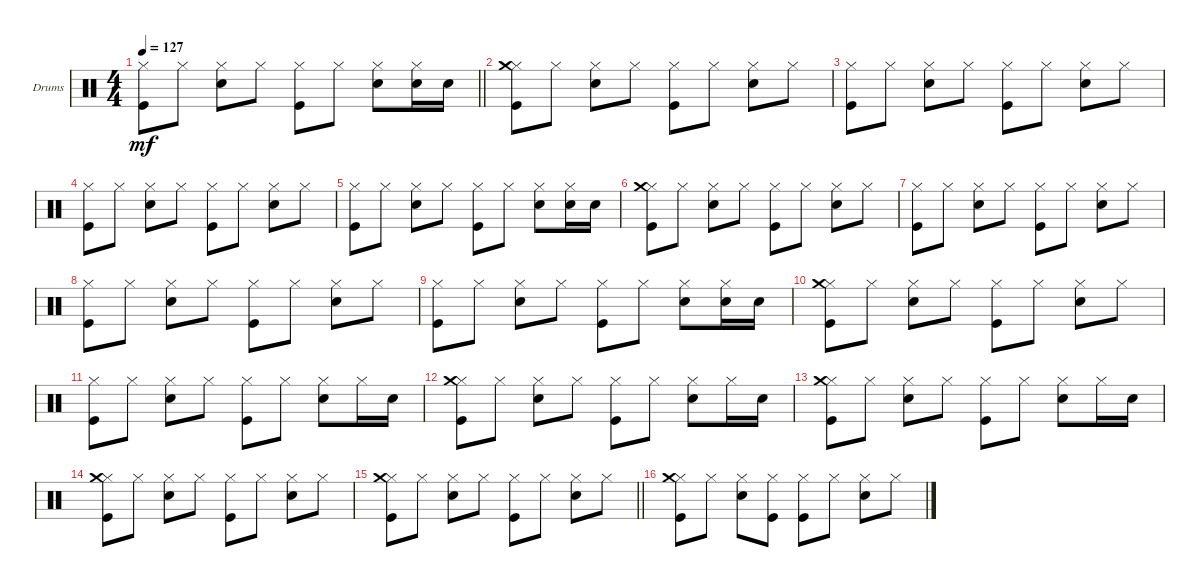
\defaultSystemsLayout 4
\bracketExtendMode groupsimilarinstruments
\firstSystemTrackNameOrientation horizontal
\otherSystemsTrackNameOrientation horizontal
\track ("Drumkit" "Drums") {instrument percussion}
\staff {score}
\articulation defaults
\ts (4 4)
\tempo 127
\clef neutral
\scale
0.25
\barLineRight lightlight
\ks c
("Hi-Hat (closed)" "Kick (hit)").8{dy mf} "Hi-Hat (closed)".8 ("Snare (hit) 2" "Hi-Hat (closed)").8 "Hi-Hat (closed)".8 ("Kick (hit)" "Hi-Hat (closed)").8 "Hi-Hat (closed)".8 ("Snare (hit) 2" "Hi-Hat (closed)").8 ("Snare (hit) 2" "Hi-Hat (closed)").16 "Snare (hit) 2".16 |
\scale
0.25 ("Kick (hit)" "Hi-Hat (closed)" "Crash medium (hit)").8 "Hi-Hat (closed)".8 ("Snare (hit) 2" "Hi-Hat (closed)").8 "Hi-Hat (closed)".8 ("Kick (hit)" "Hi-Hat (closed)").8 "Hi-Hat (closed)".8 ("Snare (hit) 2" "Hi-Hat (closed)").8 "Hi-Hat (closed)".8 |
\scale
0.25 ("Kick (hit)" "Hi-Hat (closed)").8 "Hi-Hat (closed)".8 ("Snare (hit) 2" "Hi-Hat (closed)").8 "Hi-Hat (closed)".8 ("Kick (hit)" "Hi-Hat (closed)").8 "Hi-Hat (closed)".8 ("Snare (hit) 2" "Hi-Hat (closed)").8 "Hi-Hat (closed)".8 |
\scale
0.25 ("Kick (hit)" "Hi-Hat (closed)").8 "Hi-Hat (closed)".8 ("Snare (hit) 2" "Hi-Hat (closed)").8 "Hi-Hat (closed)".8 ("Kick (hit)" "Hi-Hat (closed)").8 "Hi-Hat (closed)".8 ("Snare (hit) 2" "Hi-Hat (closed)").8 "Hi-Hat (closed)".8 |
\scale
0.25 ("Kick (hit)" "Hi-Hat (closed)").8 "Hi-Hat (closed)".8 ("Snare (hit) 2" "Hi-Hat (closed)").8 "Hi-Hat (closed)".8 ("Kick (hit)" "Hi-Hat (closed)").8 "Hi-Hat (closed)".8 ("Snare (hit) 2" "Hi-Hat (closed)").8 ("Snare (hit) 2" "Hi-Hat (closed)").16 "Snare (hit) 2".16 |
\scale
0.25 ("Kick (hit)" "Hi-Hat (closed)" "Crash medium (hit)").8 "Hi-Hat (closed)".8 ("Snare (hit) 2" "Hi-Hat (closed)").8 "Hi-Hat (closed)".8 ("Kick (hit)" "Hi-Hat (closed)").8 "Hi-Hat (closed)".8 ("Snare (hit) 2" "Hi-Hat (closed)").8 "Hi-Hat (closed)".8 |
\scale
0.25 ("Kick (hit)" "Hi-Hat (closed)").8 "Hi-Hat (closed)".8 ("Snare (hit) 2" "Hi-Hat (closed)").8 "Hi-Hat (closed)".8 ("Kick (hit)" "Hi-Hat (closed)").8 "Hi-Hat (closed)".8 ("Snare (hit) 2" "Hi-Hat (closed)").8 "Hi-Hat (closed)".8 |
\scale
0.25 ("Kick (hit)" "Hi-Hat (closed)").8 "Hi-Hat (closed)".8 ("Snare (hit) 2" "Hi-Hat (closed)").8 "Hi-Hat (closed)".8 ("Kick (hit)" "Hi-Hat (closed)").8 "Hi-Hat (closed)".8 ("Snare (hit) 2" "Hi-Hat (closed)").8 "Hi-Hat (closed)".8 |
\scale
0.25 ("Kick (hit)" "Hi-Hat (closed)").8 "Hi-Hat (closed)".8 ("Snare (hit) 2" "Hi-Hat (closed)").8 "Hi-Hat (closed)".8 ("Kick (hit)" "Hi-Hat (closed)").8 "Hi-Hat (closed)".8 ("Snare (hit) 2" "Hi-Hat (closed)").8 ("Snare (hit) 2" "Hi-Hat (closed)").16 "Snare (hit) 2".16 |
\scale
0.25 ("Kick (hit)" "Hi-Hat (closed)" "Crash medium (hit)").8 "Hi-Hat (closed)".8 ("Snare (hit) 2" "Hi-Hat (closed)").8 "Hi-Hat (closed)".8 ("Kick (hit)" "Hi-Hat (closed)").8 "Hi-Hat (closed)".8 ("Snare (hit) 2" "Hi-Hat (closed)").8 "Hi-Hat (closed)".8 |
\scale
0.25 ("Kick (hit)" "Hi-Hat (closed)").8 "Hi-Hat (closed)".8 ("Snare (hit) 2" "Hi-Hat (closed)").8 "Hi-Hat (closed)".8 ("Kick (hit)" "Hi-Hat (closed)").8 "Hi-Hat (closed)".8 ("Snare (hit) 2" "Hi-Hat (closed)").8 "Hi-Hat (closed)".16 "Snare (hit) 2".16 |
\scale
0.25 ("Kick (hit)" "Hi-Hat (closed)" "Crash medium (hit)").8 "Hi-Hat (closed)".8 ("Snare (hit) 2" "Hi-Hat (closed)").8 "Hi-Hat (closed)".8 ("Kick (hit)" "Hi-Hat (closed)").8 "Hi-Hat (closed)".8 ("Snare (hit) 2" "Hi-Hat (closed)").8 "Hi-Hat (closed)".16 "Snare (hit) 2".16 |
("Kick (hit)" "Hi-Hat (closed)" "Crash medium (hit)").8 "Hi-Hat (closed)".8 ("Snare (hit) 2" "Hi-Hat (closed)").8 "Hi-Hat (closed)".8 ("Kick (hit)" "Hi-Hat (closed)").8 "Hi-Hat (closed)".8 ("Snare (hit) 2" "Hi-Hat (closed)").8 "Hi-Hat (closed)".16 "Snare (hit) 2".16 |
("Kick (hit)" "Hi-Hat (closed)" "Crash medium (hit)").8 "Hi-Hat (closed)".8 ("Snare (hit) 2" "Hi-Hat (closed)").8 "Hi-Hat (closed)".8 ("Kick (hit)" "Hi-Hat (closed)").8 "Hi-Hat (closed)".8 ("Snare (hit) 2" "Hi-Hat (closed)").8 "Hi-Hat (closed)".8 |
\barLineRight lightlight
("Kick (hit)" "Hi-Hat (closed)" "Crash medium (hit)").8 "Hi-Hat (closed)".8 ("Snare (hit) 2" "Hi-Hat (closed)").8 "Hi-Hat (closed)".8 ("Kick (hit)" "Hi-Hat (closed)").8 "Hi-Hat (closed)".8 ("Snare (hit) 2" "Hi-Hat (closed)").8 "Hi-Hat (closed)".8 |
("Hi-Hat (closed)" "Kick (hit)" "Crash medium (hit)").8 "Hi-Hat (closed)".8 ("Snare (hit) 2" "Hi-Hat (closed)").8 ("Kick (hit)" "Hi-Hat (closed)").8 ("Kick (hit)" "Hi-Hat (closed)").8 "Hi-Hat (closed)".8 ("Snare (hit) 2" "Hi-Hat (closed)").8 "Hi-Hat (closed)".8
